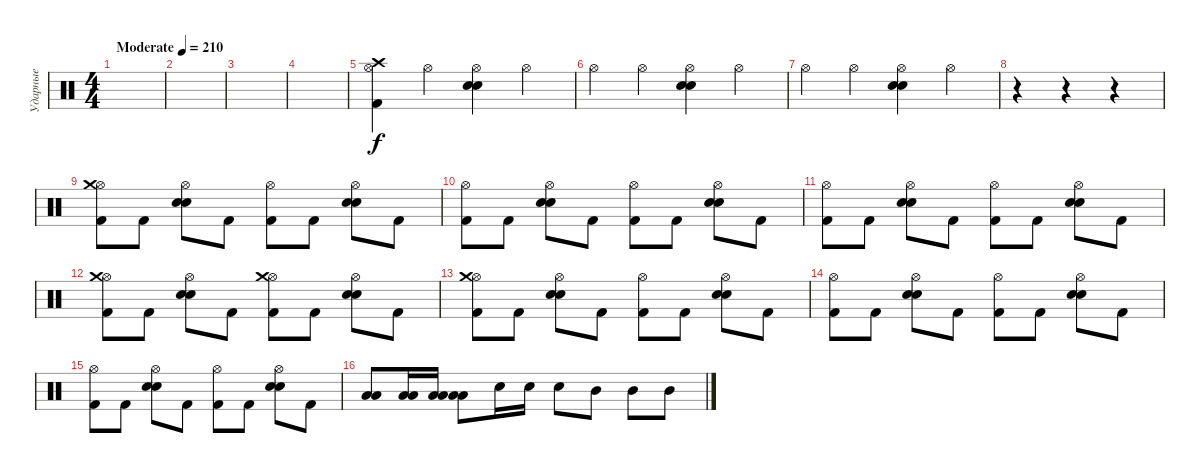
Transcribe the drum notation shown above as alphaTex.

\track ("Ударные" "Ударные") {instrument percussion}
\staff {score}
\articulation defaults
\ts (4 4)
\tempo (210 "Moderate")
\clef neutral
\ks c
|
|
|
|
("Crash high (hit)" "Hi-Hat (open)" "Kick (hit) 2").4 "Hi-Hat (open)".4 ("Hi-Hat (open)" "Snare (hit) 2" "Electric Snare (hit)").4 "Hi-Hat (open)".4 |
"Hi-Hat (open)".4 "Hi-Hat (open)".4 ("Hi-Hat (open)" "Snare (hit) 2" "Electric Snare (hit)").4 "Hi-Hat (open)".4 |
"Hi-Hat (open)".4 "Hi-Hat (open)".4 ("Hi-Hat (open)" "Snare (hit) 2" "Electric Snare (hit)").4 "Hi-Hat (open)".4 |
r.4 r.4 r.4 |
("Hi-Hat (open)" "Crash medium (hit)" "Kick (hit) 2").8 "Kick (hit) 2".8 ("Hi-Hat (open)" "Electric Snare (hit)" "Snare (hit) 2").8 "Kick (hit) 2".8 ("Hi-Hat (open)" "Kick (hit) 2").8 "Kick (hit) 2".8 ("Hi-Hat (open)" "Electric Snare (hit)" "Snare (hit) 2").8 "Kick (hit) 2".8 |
("Hi-Hat (open)" "Kick (hit) 2").8 "Kick (hit) 2".8 ("Hi-Hat (open)" "Electric Snare (hit)" "Snare (hit) 2").8 "Kick (hit) 2".8 ("Hi-Hat (open)" "Kick (hit) 2").8 "Kick (hit) 2".8 ("Hi-Hat (open)" "Electric Snare (hit)" "Snare (hit) 2").8 "Kick (hit) 2".8 |
("Hi-Hat (open)" "Kick (hit) 2").8 "Kick (hit) 2".8 ("Hi-Hat (open)" "Electric Snare (hit)" "Snare (hit) 2").8 "Kick (hit) 2".8 ("Hi-Hat (open)" "Kick (hit) 2").8 "Kick (hit) 2".8 ("Hi-Hat (open)" "Electric Snare (hit)" "Snare (hit) 2").8 "Kick (hit) 2".8 |
("Hi-Hat (open)" "Crash medium (hit)" "Kick (hit) 2").8 "Kick (hit) 2".8 ("Hi-Hat (open)" "Electric Snare (hit)" "Snare (hit) 2").8 "Kick (hit) 2".8 ("Hi-Hat (open)" "Crash medium (hit)" "Kick (hit) 2").8 "Kick (hit) 2".8 ("Hi-Hat (open)" "Electric Snare (hit)" "Snare (hit) 2").8 "Kick (hit) 2".8 |
("Hi-Hat (open)" "Crash medium (hit)" "Kick (hit) 2").8 "Kick (hit) 2".8 ("Hi-Hat (open)" "Electric Snare (hit)" "Snare (hit) 2").8 "Kick (hit) 2".8 ("Hi-Hat (open)" "Kick (hit) 2").8 "Kick (hit) 2".8 ("Hi-Hat (open)" "Electric Snare (hit)" "Snare (hit) 2").8 "Kick (hit) 2".8 |
("Hi-Hat (open)" "Kick (hit) 2").8 "Kick (hit) 2".8 ("Hi-Hat (open)" "Electric Snare (hit)" "Snare (hit) 2").8 "Kick (hit) 2".8 ("Hi-Hat (open)" "Kick (hit) 2").8 "Kick (hit) 2".8 ("Hi-Hat (open)" "Electric Snare (hit)" "Snare (hit) 2").8 "Kick (hit) 2".8 |
("Hi-Hat (open)" "Kick (hit) 2").8 "Kick (hit) 2".8 ("Hi-Hat (open)" "Electric Snare (hit)" "Snare (hit) 2").8 "Kick (hit) 2".8 ("Hi-Hat (open)" "Kick (hit) 2").8 "Kick (hit) 2".8 ("Hi-Hat (open)" "Electric Snare (hit)" "Snare (hit) 2").8 "Kick (hit) 2".8 |
("Low Tom (hit)" "Low Tom (hit)").8 ("Low Tom (hit)" "Low Tom (hit)").16 ("Low Tom (hit)" "Low Tom (hit)").16 ("Low Tom (hit)" "Low Tom (hit)").8 "Electric Snare (hit)".16 "Electric Snare (hit)".16 "Electric Snare (hit)".8 "Mid Tom (hit)".8 "Mid Tom (hit)".8 "Mid Tom (hit)".8
